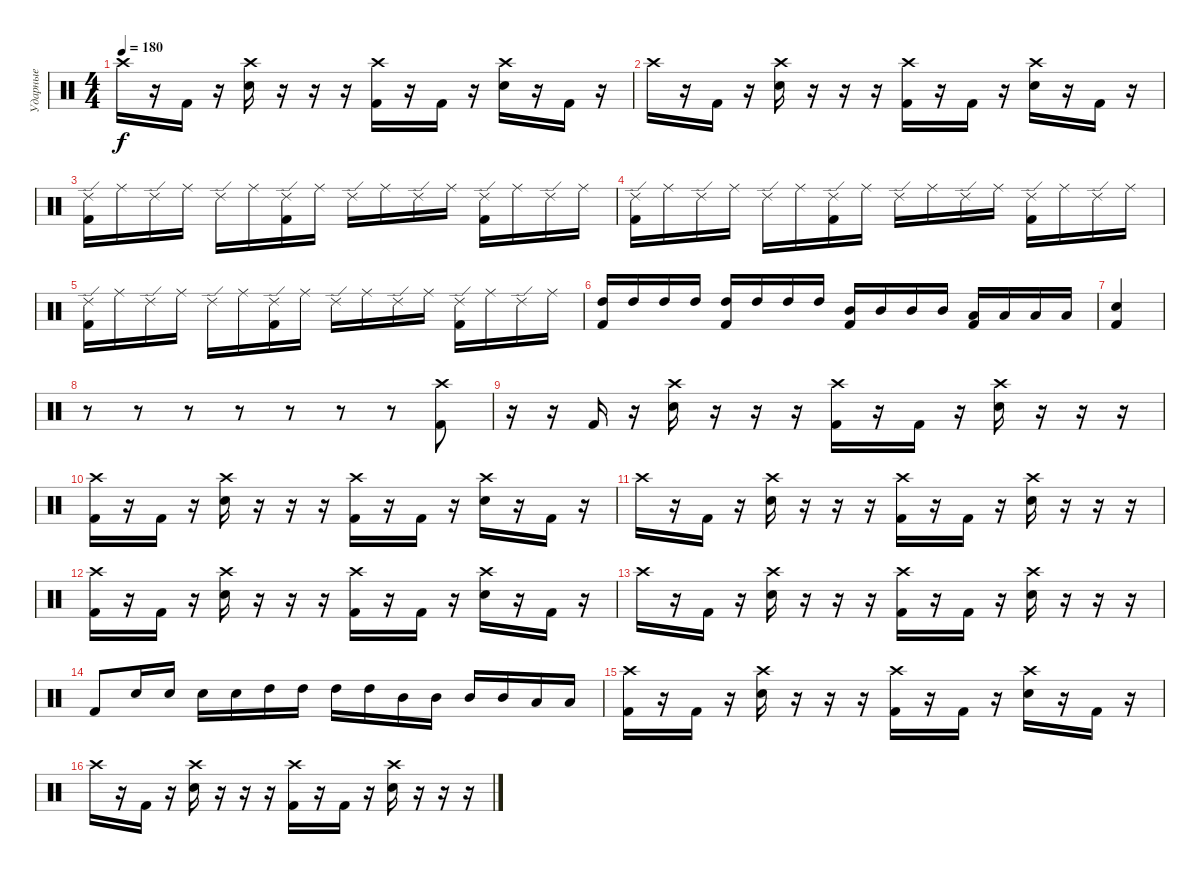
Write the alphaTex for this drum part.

\track ("Ударные" "Ударные") {instrument percussion}
\staff {score}
\articulation defaults
\ts (4 4)
\tempo 180
\clef neutral
\ks c "Crash high (hit)".16{dy f}
r.16 "Kick (hit) 2".16 r.16 ("Crash high (hit)" "Electric Snare (hit)").16 r.16 r.16 r.16 ("Crash high (hit)" "Kick (hit) 2").16 r.16 "Kick (hit) 2".16 r.16 ("Crash high (hit)" "Electric Snare (hit)").16 r.16 "Kick (hit) 2".16 r.16 |
"Crash high (hit)".16 r.16 "Kick (hit) 2".16 r.16 ("Crash high (hit)" "Electric Snare (hit)").16 r.16 r.16 r.16 ("Crash high (hit)" "Kick (hit) 2").16 r.16 "Kick (hit) 2".16 r.16 ("Crash high (hit)" "Electric Snare (hit)").16 r.16 "Kick (hit) 2".16 r.16 |
("Ride (edge) 2" "Kick (hit) 2").16 "Ride (middle)".16 "Ride (edge) 2".16 "Ride (middle)".16 "Ride (edge) 2".16 "Ride (middle)".16 ("Ride (edge) 2" "Kick (hit) 2").16 "Ride (middle)".16 "Ride (edge) 2".16 "Ride (middle)".16 "Ride (edge) 2".16 "Ride (middle)".16 ("Ride (edge) 2" "Kick (hit) 2").16 "Ride (middle)".16 "Ride (edge) 2".16 "Ride (middle)".16 |
("Ride (edge) 2" "Kick (hit) 2").16 "Ride (middle)".16 "Ride (edge) 2".16 "Ride (middle)".16 "Ride (edge) 2".16 "Ride (middle)".16 ("Ride (edge) 2" "Kick (hit) 2").16 "Ride (middle)".16 "Ride (edge) 2".16 "Ride (middle)".16 "Ride (edge) 2".16 "Ride (middle)".16 ("Ride (edge) 2" "Kick (hit) 2").16 "Ride (middle)".16 "Ride (edge) 2".16 "Ride (middle)".16 |
("Ride (edge) 2" "Kick (hit) 2").16 "Ride (middle)".16 "Ride (edge) 2".16 "Ride (middle)".16 "Ride (edge) 2".16 "Ride (middle)".16 ("Ride (edge) 2" "Kick (hit) 2").16 "Ride (middle)".16 "Ride (edge) 2".16 "Ride (middle)".16 "Ride (edge) 2".16 "Ride (middle)".16 ("Ride (edge) 2" "Kick (hit) 2").16 "Ride (middle)".16 "Ride (edge) 2".16 "Ride (middle)".16 |
("High Tom (hit)" "Kick (hit) 2").16 "High Tom (hit)".16 "High Tom (hit)".16 "High Tom (hit)".16 ("High Tom (hit)" "Kick (hit) 2").16 "High Tom (hit)".16 "High Tom (hit)".16 "High Tom (hit)".16 ("Mid Tom (hit)" "Kick (hit) 2").16 "Mid Tom (hit)".16 "Mid Tom (hit)".16 "Mid Tom (hit)".16 ("Low Tom (hit)" "Kick (hit) 2").16 "Low Tom (hit)".16 "Low Tom (hit)".16 "Low Tom (hit)".16 |
("Electric Snare (hit)" "Kick (hit) 2").4 |
r.8 r.8 r.8 r.8 r.8 r.8 r.8 ("Crash high (hit)" "Kick (hit) 2").8 |
r.16 r.16 "Kick (hit) 2".16 r.16 ("Crash high (hit)" "Electric Snare (hit)").16 r.16 r.16 r.16 ("Crash high (hit)" "Kick (hit) 2").16 r.16 "Kick (hit) 2".16 r.16 ("Crash high (hit)" "Electric Snare (hit)").16 r.16 r.16 r.16 |
("Crash high (hit)" "Kick (hit) 2").16 r.16 "Kick (hit) 2".16 r.16 ("Crash high (hit)" "Electric Snare (hit)").16 r.16 r.16 r.16 ("Crash high (hit)" "Kick (hit) 2").16 r.16 "Kick (hit) 2".16 r.16 ("Crash high (hit)" "Electric Snare (hit)").16 r.16 "Kick (hit) 2".16 r.16 |
"Crash high (hit)".16 r.16 "Kick (hit) 2".16 r.16 ("Crash high (hit)" "Electric Snare (hit)").16 r.16 r.16 r.16 ("Crash high (hit)" "Kick (hit) 2").16 r.16 "Kick (hit) 2".16 r.16 ("Crash high (hit)" "Electric Snare (hit)").16 r.16 r.16 r.16 |
("Crash high (hit)" "Kick (hit) 2").16 r.16 "Kick (hit) 2".16 r.16 ("Crash high (hit)" "Electric Snare (hit)").16 r.16 r.16 r.16 ("Crash high (hit)" "Kick (hit) 2").16 r.16 "Kick (hit) 2".16 r.16 ("Crash high (hit)" "Electric Snare (hit)").16 r.16 "Kick (hit) 2".16 r.16 |
"Crash high (hit)".16 r.16 "Kick (hit) 2".16 r.16 ("Crash high (hit)" "Electric Snare (hit)").16 r.16 r.16 r.16 ("Crash high (hit)" "Kick (hit) 2").16 r.16 "Kick (hit) 2".16 r.16 ("Crash high (hit)" "Electric Snare (hit)").16 r.16 r.16 r.16 |
"Kick (hit) 2".8 "Electric Snare (hit)".16 "Electric Snare (hit)".16 "Electric Snare (hit)".16 "Electric Snare (hit)".16 "High Tom (hit)".16 "High Tom (hit)".16 "High Tom (hit)".16 "High Tom (hit)".16 "Mid Tom (hit)".16 "Mid Tom (hit)".16 "Mid Tom (hit)".16 "Mid Tom (hit)".16 "Low Tom (hit)".16 "Low Tom (hit)".16 |
("Crash high (hit)" "Kick (hit) 2").16 r.16 "Kick (hit) 2".16 r.16 ("Crash high (hit)" "Electric Snare (hit)").16 r.16 r.16 r.16 ("Crash high (hit)" "Kick (hit) 2").16 r.16 "Kick (hit) 2".16 r.16 ("Crash high (hit)" "Electric Snare (hit)").16 r.16 "Kick (hit) 2".16 r.16 |
"Crash high (hit)".16 r.16 "Kick (hit) 2".16 r.16 ("Crash high (hit)" "Electric Snare (hit)").16 r.16 r.16 r.16 ("Crash high (hit)" "Kick (hit) 2").16 r.16 "Kick (hit) 2".16 r.16 ("Crash high (hit)" "Electric Snare (hit)").16 r.16 r.16 r.16
